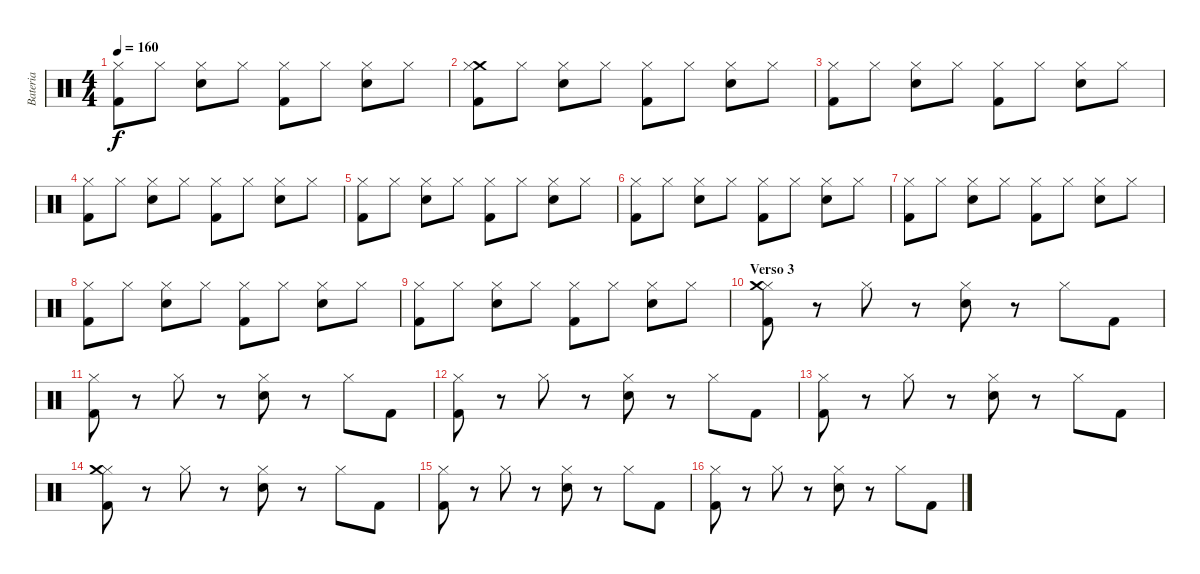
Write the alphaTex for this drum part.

\track ("Bateria" "Bateria") {instrument percussion}
\staff {score}
\articulation defaults
\ts (4 4)
\tempo 160
\clef neutral
\ks c
("Hi-Hat (closed)" "Kick (hit) 2").8{dy f} "Hi-Hat (closed)".8 ("Hi-Hat (closed)" "Electric Snare (hit)").8 "Hi-Hat (closed)".8 ("Hi-Hat (closed)" "Kick (hit) 2").8 "Hi-Hat (closed)".8 ("Hi-Hat (closed)" "Electric Snare (hit)").8 "Hi-Hat (closed)".8 |
("Crash medium (hit)" "Hi-Hat (closed)" "Kick (hit) 2").8 "Hi-Hat (closed)".8 ("Hi-Hat (closed)" "Electric Snare (hit)").8 "Hi-Hat (closed)".8 ("Hi-Hat (closed)" "Kick (hit) 2").8 "Hi-Hat (closed)".8 ("Hi-Hat (closed)" "Electric Snare (hit)").8 "Hi-Hat (closed)".8 |
("Hi-Hat (closed)" "Kick (hit) 2").8 "Hi-Hat (closed)".8 ("Hi-Hat (closed)" "Electric Snare (hit)").8 "Hi-Hat (closed)".8 ("Hi-Hat (closed)" "Kick (hit) 2").8 "Hi-Hat (closed)".8 ("Hi-Hat (closed)" "Electric Snare (hit)").8 "Hi-Hat (closed)".8 |
("Hi-Hat (closed)" "Kick (hit) 2").8 "Hi-Hat (closed)".8 ("Hi-Hat (closed)" "Electric Snare (hit)").8 "Hi-Hat (closed)".8 ("Hi-Hat (closed)" "Kick (hit) 2").8 "Hi-Hat (closed)".8 ("Hi-Hat (closed)" "Electric Snare (hit)").8 "Hi-Hat (closed)".8 |
("Hi-Hat (closed)" "Kick (hit) 2").8 "Hi-Hat (closed)".8 ("Hi-Hat (closed)" "Electric Snare (hit)").8 "Hi-Hat (closed)".8 ("Hi-Hat (closed)" "Kick (hit) 2").8 "Hi-Hat (closed)".8 ("Hi-Hat (closed)" "Electric Snare (hit)").8 "Hi-Hat (closed)".8 |
("Hi-Hat (closed)" "Kick (hit) 2").8 "Hi-Hat (closed)".8 ("Hi-Hat (closed)" "Electric Snare (hit)").8 "Hi-Hat (closed)".8 ("Hi-Hat (closed)" "Kick (hit) 2").8 "Hi-Hat (closed)".8 ("Hi-Hat (closed)" "Electric Snare (hit)").8 "Hi-Hat (closed)".8 |
("Hi-Hat (closed)" "Kick (hit) 2").8 "Hi-Hat (closed)".8 ("Hi-Hat (closed)" "Electric Snare (hit)").8 "Hi-Hat (closed)".8 ("Hi-Hat (closed)" "Kick (hit) 2").8 "Hi-Hat (closed)".8 ("Hi-Hat (closed)" "Electric Snare (hit)").8 "Hi-Hat (closed)".8 |
("Hi-Hat (closed)" "Kick (hit) 2").8 "Hi-Hat (closed)".8 ("Hi-Hat (closed)" "Electric Snare (hit)").8 "Hi-Hat (closed)".8 ("Hi-Hat (closed)" "Kick (hit) 2").8 "Hi-Hat (closed)".8 ("Hi-Hat (closed)" "Electric Snare (hit)").8 "Hi-Hat (closed)".8 |
("Hi-Hat (closed)" "Kick (hit) 2").8 "Hi-Hat (closed)".8 ("Hi-Hat (closed)" "Electric Snare (hit)").8 "Hi-Hat (closed)".8 ("Hi-Hat (closed)" "Kick (hit) 2").8 "Hi-Hat (closed)".8 ("Hi-Hat (closed)" "Electric Snare (hit)").8 "Hi-Hat (closed)".8 |
\section ("" "Verso 3")
("Hi-Hat (closed)" "Kick (hit) 2" "Crash medium (hit)").8 r.8 "Hi-Hat (closed)".8 r.8 ("Hi-Hat (closed)" "Electric Snare (hit)").8 r.8 "Hi-Hat (closed)".8 "Kick (hit) 2".8 |
("Hi-Hat (closed)" "Kick (hit) 2").8 r.8 "Hi-Hat (closed)".8 r.8 ("Hi-Hat (closed)" "Electric Snare (hit)").8 r.8 "Hi-Hat (closed)".8 "Kick (hit) 2".8 |
("Hi-Hat (closed)" "Kick (hit) 2").8 r.8 "Hi-Hat (closed)".8 r.8 ("Hi-Hat (closed)" "Electric Snare (hit)").8 r.8 "Hi-Hat (closed)".8 "Kick (hit) 2".8 |
("Hi-Hat (closed)" "Kick (hit) 2").8 r.8 "Hi-Hat (closed)".8 r.8 ("Hi-Hat (closed)" "Electric Snare (hit)").8 r.8 "Hi-Hat (closed)".8 "Kick (hit) 2".8 |
("Hi-Hat (closed)" "Kick (hit) 2" "Crash medium (hit)").8 r.8 "Hi-Hat (closed)".8 r.8 ("Hi-Hat (closed)" "Electric Snare (hit)").8 r.8 "Hi-Hat (closed)".8 "Kick (hit) 2".8 |
("Hi-Hat (closed)" "Kick (hit) 2").8 r.8 "Hi-Hat (closed)".8 r.8 ("Hi-Hat (closed)" "Electric Snare (hit)").8 r.8 "Hi-Hat (closed)".8 "Kick (hit) 2".8 |
("Hi-Hat (closed)" "Kick (hit) 2").8 r.8 "Hi-Hat (closed)".8 r.8 ("Hi-Hat (closed)" "Electric Snare (hit)").8 r.8 "Hi-Hat (closed)".8 "Kick (hit) 2".8
